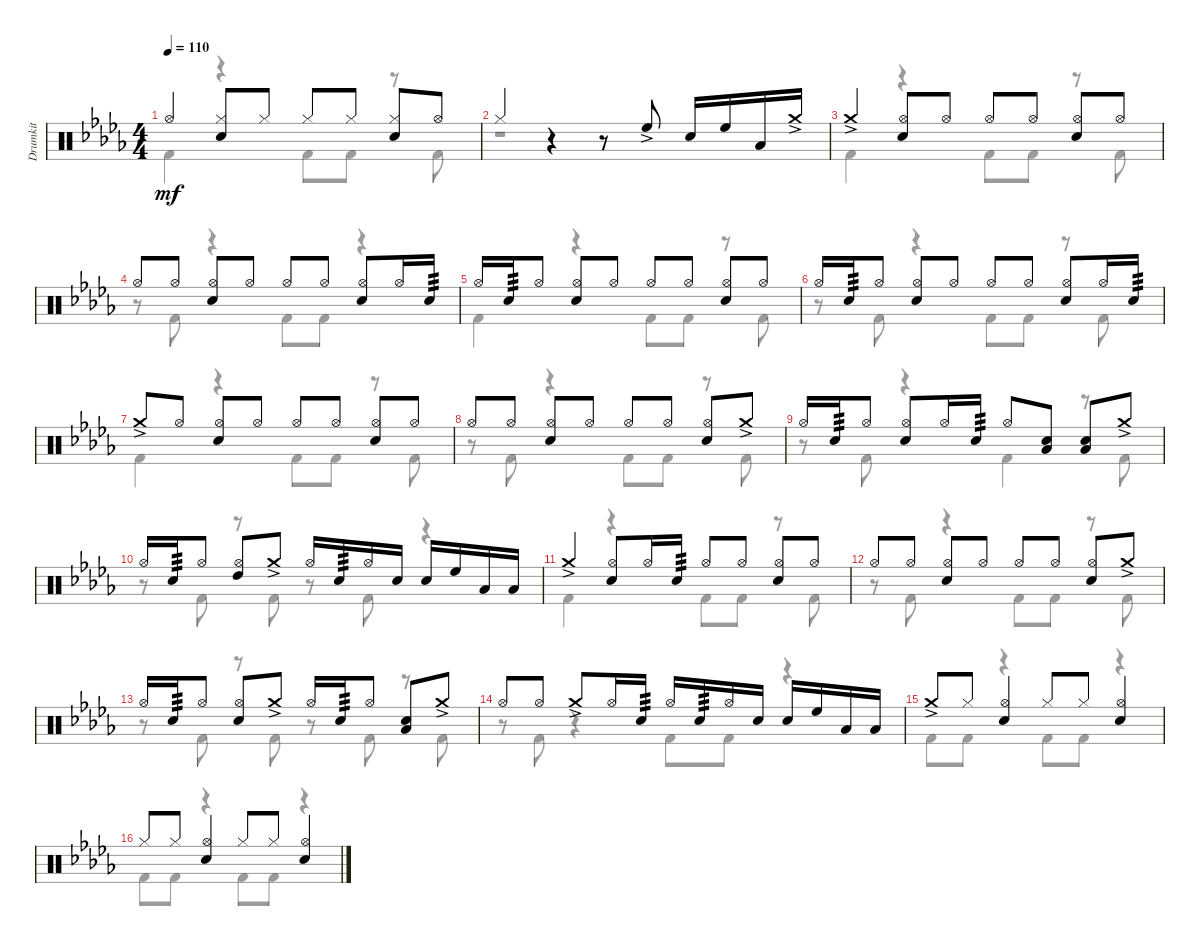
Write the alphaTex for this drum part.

\track ("Drumkit" "Drumkit") {instrument percussion}
\staff {score}
\articulation defaults
\voice
\ts (4 4)
\tempo 110
\clef neutral
\ks db "Hi-Hat (open)".4{dy mf}
("Hi-Hat (closed)" "Snare (hit) 2").8 "Hi-Hat (closed)".8 "Hi-Hat (closed)".8 "Hi-Hat (closed)".8 ("Hi-Hat (closed)" "Snare (hit) 2").8 "Hi-Hat (open)".8 |
"Hi-Hat (closed)".4 r.4 r.8 "High Floor Tom (hit)"{ac}.8 "Snare (hit) 2".16 "High Floor Tom (hit)".16 "Low Floor Tom (hit)".16 "Crash medium (hit)"{ac}.16 |
\section ("" "")
"Crash medium (hit)"{ac}.4 ("Hi-Hat (open)" "Snare (hit) 2").8 "Hi-Hat (open)".8 "Hi-Hat (open)".8 "Hi-Hat (open)".8 ("Hi-Hat (open)" "Snare (hit) 2").8 "Hi-Hat (open)".8 |
"Hi-Hat (open)".8 "Hi-Hat (open)".8 ("Hi-Hat (open)" "Snare (hit) 2").8 "Hi-Hat (open)".8 "Hi-Hat (open)".8 "Hi-Hat (open)".8 ("Hi-Hat (open)" "Snare (hit) 2").8 "Hi-Hat (open)".16 "Snare (hit) 2".16{tp 3} |
"Hi-Hat (open)".16 "Snare (hit) 2".16{tp 3} "Hi-Hat (open)".8 ("Hi-Hat (open)" "Snare (hit) 2").8 "Hi-Hat (open)".8 "Hi-Hat (open)".8 "Hi-Hat (open)".8 ("Hi-Hat (open)" "Snare (hit) 2").8 "Hi-Hat (open)".8 |
"Hi-Hat (open)".16 "Snare (hit) 2".16{tp 3} "Hi-Hat (open)".8 ("Hi-Hat (open)" "Snare (hit) 2").8 "Hi-Hat (open)".8 "Hi-Hat (open)".8 "Hi-Hat (open)".8 ("Hi-Hat (open)" "Snare (hit) 2").8 "Hi-Hat (open)".16 "Snare (hit) 2".16{tp 3} |
"Crash medium (hit)"{ac}.8 "Hi-Hat (open)".8 ("Hi-Hat (open)" "Snare (hit) 2").8 "Hi-Hat (open)".8 "Hi-Hat (open)".8 "Hi-Hat (open)".8 ("Hi-Hat (open)" "Snare (hit) 2").8 "Hi-Hat (open)".8 |
"Hi-Hat (open)".8 "Hi-Hat (open)".8 ("Hi-Hat (open)" "Snare (hit) 2").8 "Hi-Hat (open)".8 "Hi-Hat (open)".8 "Hi-Hat (open)".8 ("Hi-Hat (open)" "Snare (hit) 2").8 "Crash medium (hit)"{ac}.8 |
"Hi-Hat (open)".16 "Snare (hit) 2".16{tp 3} "Hi-Hat (open)".8 ("Hi-Hat (open)" "Snare (hit) 2").8 "Hi-Hat (open)".16 "Snare (hit) 2".16{tp 3} "Hi-Hat (open)".8 ("Snare (hit) 2" "Low Floor Tom (hit)").8 ("Low Floor Tom (hit)" "Snare (hit) 2").8 "Crash medium (hit)"{ac}.8 |
"Hi-Hat (open)".16 "Snare (hit) 2".16{tp 3} "Hi-Hat (open)".8 ("Hi-Hat (open)" "High Tom (hit)").8 "Crash medium (hit)"{ac}.8 "Hi-Hat (open)".16 "Snare (hit) 2".16{tp 3} "Hi-Hat (open)".16 "Snare (hit) 2".16 "Snare (hit) 2".16 "High Floor Tom (hit)".16 "Low Floor Tom (hit)".16 "Low Floor Tom (hit)".16 |
"Crash medium (hit)"{ac}.4 ("Snare (hit) 2" "Hi-Hat (open)").8 "Hi-Hat (open)".16 "Snare (hit) 2".16{tp 3} "Hi-Hat (open)".8 "Hi-Hat (open)".8 ("Hi-Hat (open)" "Snare (hit) 2").8 "Hi-Hat (open)".8 |
"Hi-Hat (open)".8 "Hi-Hat (open)".8 ("Hi-Hat (open)" "Snare (hit) 2").8 "Hi-Hat (open)".8 "Hi-Hat (open)".8 "Hi-Hat (open)".8 ("Hi-Hat (open)" "Snare (hit) 2").8 "Crash medium (hit)"{ac}.8 |
"Hi-Hat (open)".16 "Snare (hit) 2".16{tp 3} "Hi-Hat (open)".8 ("Snare (hit) 2" "Hi-Hat (open)").8 "Crash medium (hit)"{ac}.8 "Hi-Hat (open)".16 "Snare (hit) 2".16{tp 3} "Hi-Hat (open)".8 ("Snare (hit) 2" "Low Floor Tom (hit)").8 "Crash medium (hit)"{ac}.8 |
"Hi-Hat (open)".8 "Hi-Hat (open)".8 "Crash medium (hit)"{ac}.8 "Hi-Hat (open)".16 "Snare (hit) 2".16{tp 3} "Hi-Hat (open)".16 "Snare (hit) 2".16{tp 3} "Hi-Hat (open)".16 "Snare (hit) 2".16 "Snare (hit) 2".16 "High Floor Tom (hit)".16 "Low Floor Tom (hit)".16 "Low Floor Tom (hit)".16 |
"Crash medium (hit)"{ac}.8 "Hi-Hat (closed)".8 ("Hi-Hat (open)" "Snare (hit) 2").4 "Hi-Hat (closed)".8 "Hi-Hat (closed)".8 ("Hi-Hat (open)" "Snare (hit) 2").4 |
"Hi-Hat (closed)".8 "Hi-Hat (closed)".8 ("Hi-Hat (open)" "Snare (hit) 2").4 "Hi-Hat (closed)".8 "Hi-Hat (closed)".8 ("Hi-Hat (open)" "Snare (hit) 2").4
\voice
\clef neutral
\ottava regular
\simile none
\ks db "Kick (hit) 2".4{dy mf}
r.4 "Kick (hit) 2".8 "Kick (hit) 2".8 r.8 "Kick (hit) 2".8 |
r.1 |
"Kick (hit) 2".4 r.4 "Kick (hit) 2".8 "Kick (hit) 2".8 r.8 "Kick (hit) 2".8 |
r.8 "Kick (hit) 2".8 r.4 "Kick (hit) 2".8 "Kick (hit) 2".8 r.4 |
"Kick (hit) 2".4 r.4 "Kick (hit) 2".8 "Kick (hit) 2".8 r.8 "Kick (hit) 2".8 |
r.8 "Kick (hit) 2".8 r.4 "Kick (hit) 2".8 "Kick (hit) 2".8 r.8 "Kick (hit) 2".8 |
"Kick (hit) 2".4 r.4 "Kick (hit) 2".8 "Kick (hit) 2".8 r.8 "Kick (hit) 2".8 |
r.8 "Kick (hit) 2".8 r.4 "Kick (hit) 2".8 "Kick (hit) 2".8 r.8 "Kick (hit) 2".8 |
r.8 "Kick (hit) 2".8 r.4 "Kick (hit) 2".4 r.8 "Kick (hit) 2".8 |
r.8 "Kick (hit) 2".8 r.8 "Kick (hit) 2".8 r.8 "Kick (hit) 2".8 r.4 |
"Kick (hit) 2".4 r.4 "Kick (hit) 2".8 "Kick (hit) 2".8 r.8 "Kick (hit) 2".8 |
r.8 "Kick (hit) 2".8 r.4 "Kick (hit) 2".8 "Kick (hit) 2".8 r.8 "Kick (hit) 2".8 |
r.8 "Kick (hit) 2".8 r.8 "Kick (hit) 2".8 r.8 "Kick (hit) 2".8 r.8 "Kick (hit) 2".8 |
r.8 "Kick (hit) 2".8 r.4 "Kick (hit) 2".8 "Kick (hit) 2".8 r.4 |
"Kick (hit) 2".8 "Kick (hit) 2".8 r.4 "Kick (hit) 2".8 "Kick (hit) 2".8 r.4 |
"Kick (hit) 2".8 "Kick (hit) 2".8 r.4 "Kick (hit) 2".8 "Kick (hit) 2".8 r.4
